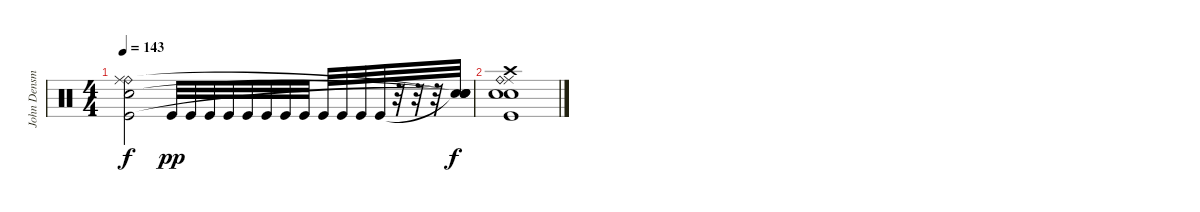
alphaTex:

\track ("John Densmore" "John Densm") {instrument percussion}
\staff {score}
\articulation defaults
\ts (4 4)
\tempo 143
\clef neutral
\ks c
("Ride (bell)" "Ride (middle)" "Kick (hit)" "Snare (hit) 2").2{dy f} "Kick (hit)".32{dy pp} "Kick (hit)".32 "Kick (hit)".32 "Kick (hit)".32 "Kick (hit)".32 "Kick (hit)".32 "Kick (hit)".32 "Kick (hit)".32 "Kick (hit)".32 "Kick (hit)".32 "Kick (hit)".32 "Kick (hit)".32 r.32 r.32 r.32 ("Snare (hit)"{t} "Snare (hit)"{t} "Snare (hit)"{t} "Snare (hit)"{t}).32{dy f} |
("Crash high (hit)" "Ride (middle)" "Ride (bell)" "Snare (hit) 2" "Kick (hit)" "Electric Snare (hit)").1
